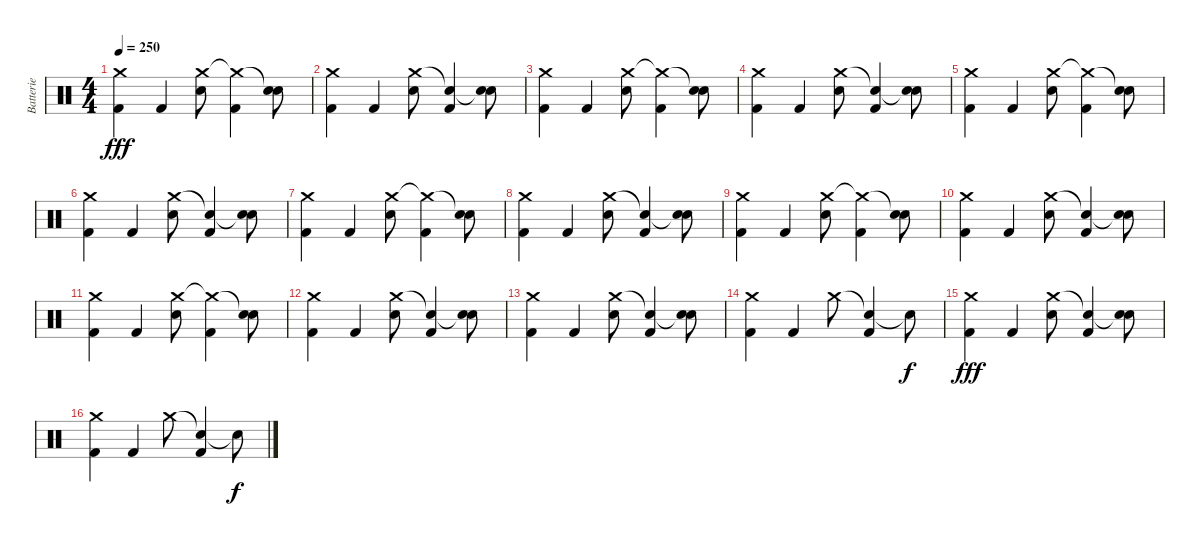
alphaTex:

\track ("Batterie" "Batterie") {instrument percussion}
\staff {score}
\articulation defaults
\ts (4 4)
\tempo 250
\clef neutral
\ks c
("Crash medium (hit)" "Kick (hit) 2").4{dy fff} "Kick (hit) 2".4 ("Crash medium (hit)" "Electric Snare (hit)").8 ("Crash medium (hit)"{t} "Kick (hit) 2").4 ("Snare (hit)"{t} "Electric Snare (hit)").8 |
("Crash medium (hit)" "Kick (hit) 2").4 "Kick (hit) 2".4 ("Crash medium (hit)" "Electric Snare (hit)").8 ("Snare (hit)"{t} "Kick (hit) 2").4 ("Snare (hit)"{t} "Electric Snare (hit)").8 |
("Crash medium (hit)" "Kick (hit) 2").4 "Kick (hit) 2".4 ("Crash medium (hit)" "Electric Snare (hit)").8 ("Crash medium (hit)"{t} "Kick (hit) 2").4 ("Snare (hit)"{t} "Electric Snare (hit)").8 |
("Crash medium (hit)" "Kick (hit) 2").4 "Kick (hit) 2".4 ("Crash medium (hit)" "Electric Snare (hit)").8 ("Snare (hit)"{t} "Kick (hit) 2").4 ("Snare (hit)"{t} "Electric Snare (hit)").8 |
("Crash medium (hit)" "Kick (hit) 2").4 "Kick (hit) 2".4 ("Crash medium (hit)" "Electric Snare (hit)").8 ("Crash medium (hit)"{t} "Kick (hit) 2").4 ("Snare (hit)"{t} "Electric Snare (hit)").8 |
("Crash medium (hit)" "Kick (hit) 2").4 "Kick (hit) 2".4 ("Crash medium (hit)" "Electric Snare (hit)").8 ("Snare (hit)"{t} "Kick (hit) 2").4 ("Snare (hit)"{t} "Electric Snare (hit)").8 |
("Crash medium (hit)" "Kick (hit) 2").4 "Kick (hit) 2".4 ("Crash medium (hit)" "Electric Snare (hit)").8 ("Crash medium (hit)"{t} "Kick (hit) 2").4 ("Snare (hit)"{t} "Electric Snare (hit)").8 |
("Crash medium (hit)" "Kick (hit) 2").4 "Kick (hit) 2".4 ("Crash medium (hit)" "Electric Snare (hit)").8 ("Snare (hit)"{t} "Kick (hit) 2").4 ("Snare (hit)"{t} "Electric Snare (hit)").8 |
("Crash medium (hit)" "Kick (hit) 2").4 "Kick (hit) 2".4 ("Crash medium (hit)" "Electric Snare (hit)").8 ("Crash medium (hit)"{t} "Kick (hit) 2").4 ("Snare (hit)"{t} "Electric Snare (hit)").8 |
("Crash medium (hit)" "Kick (hit) 2").4 "Kick (hit) 2".4 ("Crash medium (hit)" "Electric Snare (hit)").8 ("Snare (hit)"{t} "Kick (hit) 2").4 ("Snare (hit)"{t} "Electric Snare (hit)").8 |
("Crash medium (hit)" "Kick (hit) 2").4 "Kick (hit) 2".4 ("Crash medium (hit)" "Electric Snare (hit)").8 ("Crash medium (hit)"{t} "Kick (hit) 2").4 ("Snare (hit)"{t} "Electric Snare (hit)").8 |
("Crash medium (hit)" "Kick (hit) 2").4 "Kick (hit) 2".4 ("Crash medium (hit)" "Electric Snare (hit)").8 ("Snare (hit)"{t} "Kick (hit) 2").4 ("Snare (hit)"{t} "Electric Snare (hit)").8 |
("Crash medium (hit)" "Kick (hit) 2").4 "Kick (hit) 2".4 ("Crash medium (hit)" "Electric Snare (hit)").8 ("Snare (hit)"{t} "Kick (hit) 2").4 ("Snare (hit)"{t} "Electric Snare (hit)").8 |
("Crash medium (hit)" "Kick (hit) 2").4 "Kick (hit) 2".4 "Crash medium (hit)".8 ("Snare (hit)"{t} "Kick (hit) 2").4 "Snare (hit)"{t}.8{dy f} |
("Crash medium (hit)" "Kick (hit) 2").4{dy fff} "Kick (hit) 2".4 ("Crash medium (hit)" "Electric Snare (hit)").8 ("Snare (hit)"{t} "Kick (hit) 2").4 ("Snare (hit)"{t} "Electric Snare (hit)").8 |
("Crash medium (hit)" "Kick (hit) 2").4 "Kick (hit) 2".4 "Crash medium (hit)".8 ("Snare (hit)"{t} "Kick (hit) 2").4 "Snare (hit)"{t}.8{dy f}
